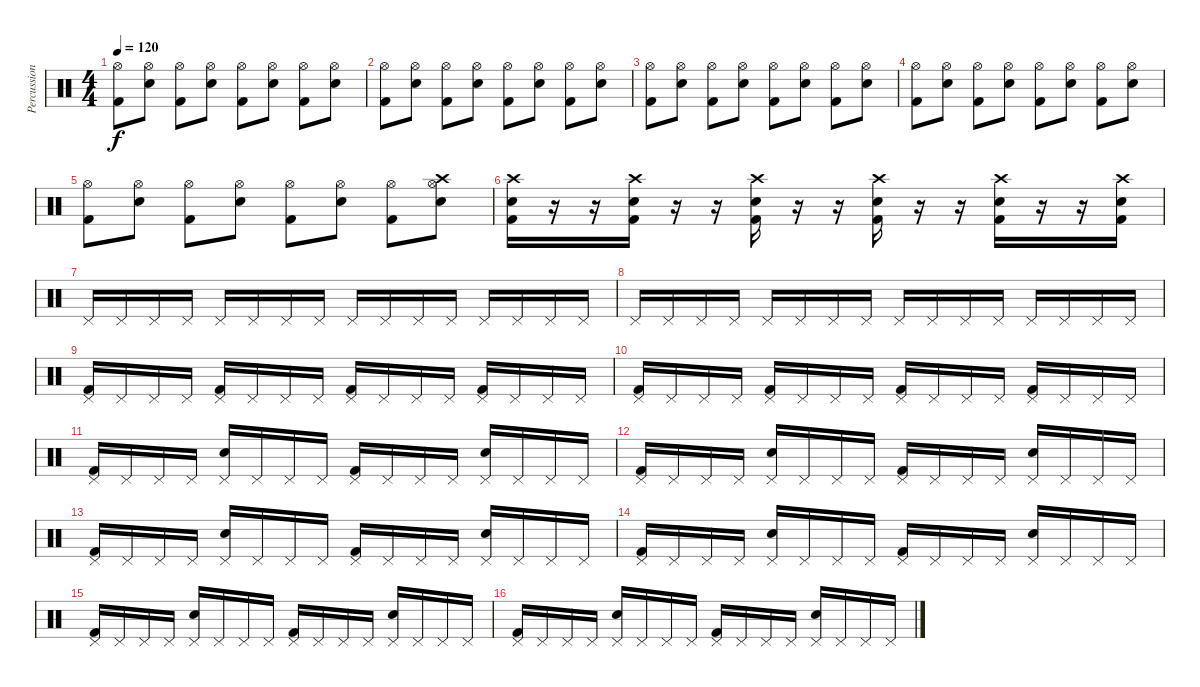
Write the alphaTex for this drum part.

\track ("Percussion" "Percussion") {instrument percussion}
\staff {score}
\articulation defaults
\ts (4 4)
\tempo 120
\clef neutral
\ks c
("Hi-Hat (open)" "Kick (hit) 2").8{dy f} ("Electric Snare (hit)" "Hi-Hat (open)").8 ("Hi-Hat (open)" "Kick (hit) 2").8 ("Electric Snare (hit)" "Hi-Hat (open)").8 ("Hi-Hat (open)" "Kick (hit) 2").8 ("Electric Snare (hit)" "Hi-Hat (open)").8 ("Hi-Hat (open)" "Kick (hit) 2").8 ("Electric Snare (hit)" "Hi-Hat (open)").8 |
("Hi-Hat (open)" "Kick (hit) 2").8 ("Electric Snare (hit)" "Hi-Hat (open)").8 ("Hi-Hat (open)" "Kick (hit) 2").8 ("Electric Snare (hit)" "Hi-Hat (open)").8 ("Hi-Hat (open)" "Kick (hit) 2").8 ("Electric Snare (hit)" "Hi-Hat (open)").8 ("Hi-Hat (open)" "Kick (hit) 2").8 ("Electric Snare (hit)" "Hi-Hat (open)").8 |
("Hi-Hat (open)" "Kick (hit) 2").8 ("Electric Snare (hit)" "Hi-Hat (open)").8 ("Hi-Hat (open)" "Kick (hit) 2").8 ("Electric Snare (hit)" "Hi-Hat (open)").8 ("Hi-Hat (open)" "Kick (hit) 2").8 ("Electric Snare (hit)" "Hi-Hat (open)").8 ("Hi-Hat (open)" "Kick (hit) 2").8 ("Electric Snare (hit)" "Hi-Hat (open)").8 |
("Hi-Hat (open)" "Kick (hit) 2").8 ("Electric Snare (hit)" "Hi-Hat (open)").8 ("Hi-Hat (open)" "Kick (hit) 2").8 ("Electric Snare (hit)" "Hi-Hat (open)").8 ("Hi-Hat (open)" "Kick (hit) 2").8 ("Electric Snare (hit)" "Hi-Hat (open)").8 ("Hi-Hat (open)" "Kick (hit) 2").8 ("Electric Snare (hit)" "Hi-Hat (open)").8 |
("Hi-Hat (open)" "Kick (hit) 2").8 ("Electric Snare (hit)" "Hi-Hat (open)").8 ("Hi-Hat (open)" "Kick (hit) 2").8 ("Electric Snare (hit)" "Hi-Hat (open)").8 ("Hi-Hat (open)" "Kick (hit) 2").8 ("Electric Snare (hit)" "Hi-Hat (open)").8 ("Hi-Hat (open)" "Kick (hit) 2").8 ("Electric Snare (hit)" "Hi-Hat (open)" "Crash high (hit)").8 |
("Crash high (hit)" "Kick (hit) 2" "Electric Snare (hit)").16 r.16 r.16 ("Crash high (hit)" "Kick (hit) 2" "Electric Snare (hit)").16 r.16 r.16 ("Crash high (hit)" "Kick (hit) 2" "Electric Snare (hit)").16 r.16 r.16 ("Crash high (hit)" "Kick (hit) 2" "Electric Snare (hit)").16 r.16 r.16 ("Crash high (hit)" "Kick (hit) 2" "Electric Snare (hit)").16 r.16 r.16 ("Crash high (hit)" "Kick (hit) 2" "Electric Snare (hit)").16 |
"Pedal Hi-Hat (hit)".16 "Pedal Hi-Hat (hit)".16 "Pedal Hi-Hat (hit)".16 "Pedal Hi-Hat (hit)".16 "Pedal Hi-Hat (hit)".16 "Pedal Hi-Hat (hit)".16 "Pedal Hi-Hat (hit)".16 "Pedal Hi-Hat (hit)".16 "Pedal Hi-Hat (hit)".16 "Pedal Hi-Hat (hit)".16 "Pedal Hi-Hat (hit)".16 "Pedal Hi-Hat (hit)".16 "Pedal Hi-Hat (hit)".16 "Pedal Hi-Hat (hit)".16 "Pedal Hi-Hat (hit)".16 "Pedal Hi-Hat (hit)".16 |
"Pedal Hi-Hat (hit)".16 "Pedal Hi-Hat (hit)".16 "Pedal Hi-Hat (hit)".16 "Pedal Hi-Hat (hit)".16 "Pedal Hi-Hat (hit)".16 "Pedal Hi-Hat (hit)".16 "Pedal Hi-Hat (hit)".16 "Pedal Hi-Hat (hit)".16 "Pedal Hi-Hat (hit)".16 "Pedal Hi-Hat (hit)".16 "Pedal Hi-Hat (hit)".16 "Pedal Hi-Hat (hit)".16 "Pedal Hi-Hat (hit)".16 "Pedal Hi-Hat (hit)".16 "Pedal Hi-Hat (hit)".16 "Pedal Hi-Hat (hit)".16 |
("Pedal Hi-Hat (hit)" "Kick (hit) 2").16 "Pedal Hi-Hat (hit)".16 "Pedal Hi-Hat (hit)".16 "Pedal Hi-Hat (hit)".16 ("Pedal Hi-Hat (hit)" "Kick (hit) 2").16 "Pedal Hi-Hat (hit)".16 "Pedal Hi-Hat (hit)".16 "Pedal Hi-Hat (hit)".16 ("Pedal Hi-Hat (hit)" "Kick (hit) 2").16 "Pedal Hi-Hat (hit)".16 "Pedal Hi-Hat (hit)".16 "Pedal Hi-Hat (hit)".16 ("Pedal Hi-Hat (hit)" "Kick (hit) 2").16 "Pedal Hi-Hat (hit)".16 "Pedal Hi-Hat (hit)".16 "Pedal Hi-Hat (hit)".16 |
("Pedal Hi-Hat (hit)" "Kick (hit) 2").16 "Pedal Hi-Hat (hit)".16 "Pedal Hi-Hat (hit)".16 "Pedal Hi-Hat (hit)".16 ("Pedal Hi-Hat (hit)" "Kick (hit) 2").16 "Pedal Hi-Hat (hit)".16 "Pedal Hi-Hat (hit)".16 "Pedal Hi-Hat (hit)".16 ("Pedal Hi-Hat (hit)" "Kick (hit) 2").16 "Pedal Hi-Hat (hit)".16 "Pedal Hi-Hat (hit)".16 "Pedal Hi-Hat (hit)".16 ("Pedal Hi-Hat (hit)" "Kick (hit) 2").16 "Pedal Hi-Hat (hit)".16 "Pedal Hi-Hat (hit)".16 "Pedal Hi-Hat (hit)".16 |
("Pedal Hi-Hat (hit)" "Kick (hit) 2").16 "Pedal Hi-Hat (hit)".16 "Pedal Hi-Hat (hit)".16 "Pedal Hi-Hat (hit)".16 ("Pedal Hi-Hat (hit)" "Electric Snare (hit)").16 "Pedal Hi-Hat (hit)".16 "Pedal Hi-Hat (hit)".16 "Pedal Hi-Hat (hit)".16 ("Pedal Hi-Hat (hit)" "Kick (hit) 2").16 "Pedal Hi-Hat (hit)".16 "Pedal Hi-Hat (hit)".16 "Pedal Hi-Hat (hit)".16 ("Pedal Hi-Hat (hit)" "Electric Snare (hit)").16 "Pedal Hi-Hat (hit)".16 "Pedal Hi-Hat (hit)".16 "Pedal Hi-Hat (hit)".16 |
("Pedal Hi-Hat (hit)" "Kick (hit) 2").16 "Pedal Hi-Hat (hit)".16 "Pedal Hi-Hat (hit)".16 "Pedal Hi-Hat (hit)".16 ("Pedal Hi-Hat (hit)" "Electric Snare (hit)").16 "Pedal Hi-Hat (hit)".16 "Pedal Hi-Hat (hit)".16 "Pedal Hi-Hat (hit)".16 ("Pedal Hi-Hat (hit)" "Kick (hit) 2").16 "Pedal Hi-Hat (hit)".16 "Pedal Hi-Hat (hit)".16 "Pedal Hi-Hat (hit)".16 ("Pedal Hi-Hat (hit)" "Electric Snare (hit)").16 "Pedal Hi-Hat (hit)".16 "Pedal Hi-Hat (hit)".16 "Pedal Hi-Hat (hit)".16 |
("Pedal Hi-Hat (hit)" "Kick (hit) 2").16 "Pedal Hi-Hat (hit)".16 "Pedal Hi-Hat (hit)".16 "Pedal Hi-Hat (hit)".16 ("Pedal Hi-Hat (hit)" "Electric Snare (hit)").16 "Pedal Hi-Hat (hit)".16 "Pedal Hi-Hat (hit)".16 "Pedal Hi-Hat (hit)".16 ("Pedal Hi-Hat (hit)" "Kick (hit) 2").16 "Pedal Hi-Hat (hit)".16 "Pedal Hi-Hat (hit)".16 "Pedal Hi-Hat (hit)".16 ("Pedal Hi-Hat (hit)" "Electric Snare (hit)").16 "Pedal Hi-Hat (hit)".16 "Pedal Hi-Hat (hit)".16 "Pedal Hi-Hat (hit)".16 |
("Pedal Hi-Hat (hit)" "Kick (hit) 2").16 "Pedal Hi-Hat (hit)".16 "Pedal Hi-Hat (hit)".16 "Pedal Hi-Hat (hit)".16 ("Pedal Hi-Hat (hit)" "Electric Snare (hit)").16 "Pedal Hi-Hat (hit)".16 "Pedal Hi-Hat (hit)".16 "Pedal Hi-Hat (hit)".16 ("Pedal Hi-Hat (hit)" "Kick (hit) 2").16 "Pedal Hi-Hat (hit)".16 "Pedal Hi-Hat (hit)".16 "Pedal Hi-Hat (hit)".16 ("Pedal Hi-Hat (hit)" "Electric Snare (hit)").16 "Pedal Hi-Hat (hit)".16 "Pedal Hi-Hat (hit)".16 "Pedal Hi-Hat (hit)".16 |
("Pedal Hi-Hat (hit)" "Kick (hit) 2").16 "Pedal Hi-Hat (hit)".16 "Pedal Hi-Hat (hit)".16 "Pedal Hi-Hat (hit)".16 ("Pedal Hi-Hat (hit)" "Electric Snare (hit)").16 "Pedal Hi-Hat (hit)".16 "Pedal Hi-Hat (hit)".16 "Pedal Hi-Hat (hit)".16 ("Pedal Hi-Hat (hit)" "Kick (hit) 2").16 "Pedal Hi-Hat (hit)".16 "Pedal Hi-Hat (hit)".16 "Pedal Hi-Hat (hit)".16 ("Pedal Hi-Hat (hit)" "Electric Snare (hit)").16 "Pedal Hi-Hat (hit)".16 "Pedal Hi-Hat (hit)".16 "Pedal Hi-Hat (hit)".16 |
("Pedal Hi-Hat (hit)" "Kick (hit) 2").16 "Pedal Hi-Hat (hit)".16 "Pedal Hi-Hat (hit)".16 "Pedal Hi-Hat (hit)".16 ("Pedal Hi-Hat (hit)" "Electric Snare (hit)").16 "Pedal Hi-Hat (hit)".16 "Pedal Hi-Hat (hit)".16 "Pedal Hi-Hat (hit)".16 ("Pedal Hi-Hat (hit)" "Kick (hit) 2").16 "Pedal Hi-Hat (hit)".16 "Pedal Hi-Hat (hit)".16 "Pedal Hi-Hat (hit)".16 ("Pedal Hi-Hat (hit)" "Electric Snare (hit)").16 "Pedal Hi-Hat (hit)".16 "Pedal Hi-Hat (hit)".16 "Pedal Hi-Hat (hit)".16
